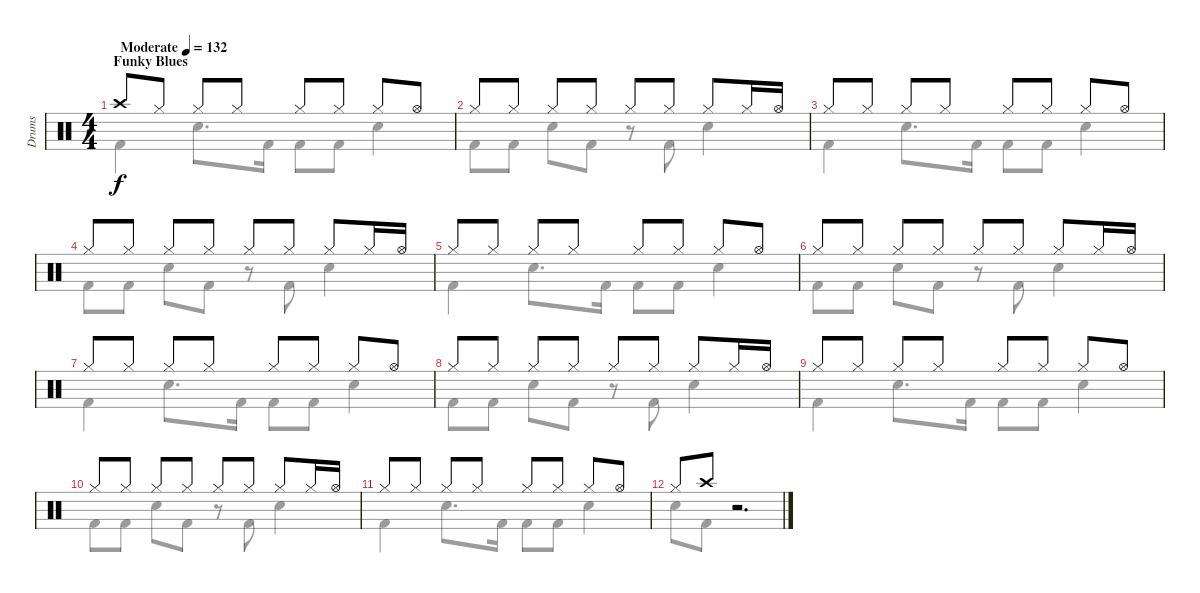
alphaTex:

\track ("Drums" "Drums") {instrument percussion}
\staff {score}
\articulation defaults
\voice
\ts (4 4)
\section ("" "Funky Blues")
\tempo (132 "Moderate")
\clef neutral
\ks c "Crash high (hit)".8{dy f volume 11 balance 8} "Hi-Hat (closed)".8 "Hi-Hat (closed)".8 "Hi-Hat (closed)".8 "Hi-Hat (closed)".8 "Hi-Hat (closed)".8 "Hi-Hat (closed)".8 "Hi-Hat (open)".8
|
"Hi-Hat (closed)".8 "Hi-Hat (closed)".8 "Hi-Hat (closed)".8 "Hi-Hat (closed)".8 "Hi-Hat (closed)".8 "Hi-Hat (closed)".8 "Hi-Hat (closed)".8 "Hi-Hat (closed)".16 "Hi-Hat (open)".16 |
"Hi-Hat (closed)".8 "Hi-Hat (closed)".8 "Hi-Hat (closed)".8 "Hi-Hat (closed)".8 "Hi-Hat (closed)".8 "Hi-Hat (closed)".8 "Hi-Hat (closed)".8 "Hi-Hat (open)".8 |
"Hi-Hat (closed)".8 "Hi-Hat (closed)".8 "Hi-Hat (closed)".8 "Hi-Hat (closed)".8 "Hi-Hat (closed)".8 "Hi-Hat (closed)".8 "Hi-Hat (closed)".8 "Hi-Hat (closed)".16 "Hi-Hat (open)".16 |
"Hi-Hat (closed)".8 "Hi-Hat (closed)".8 "Hi-Hat (closed)".8 "Hi-Hat (closed)".8 "Hi-Hat (closed)".8 "Hi-Hat (closed)".8 "Hi-Hat (closed)".8 "Hi-Hat (open)".8 |
"Hi-Hat (closed)".8 "Hi-Hat (closed)".8 "Hi-Hat (closed)".8 "Hi-Hat (closed)".8 "Hi-Hat (closed)".8 "Hi-Hat (closed)".8 "Hi-Hat (closed)".8 "Hi-Hat (closed)".16 "Hi-Hat (open)".16 |
"Hi-Hat (closed)".8 "Hi-Hat (closed)".8 "Hi-Hat (closed)".8 "Hi-Hat (closed)".8 "Hi-Hat (closed)".8 "Hi-Hat (closed)".8 "Hi-Hat (closed)".8 "Hi-Hat (open)".8 |
"Hi-Hat (closed)".8 "Hi-Hat (closed)".8 "Hi-Hat (closed)".8 "Hi-Hat (closed)".8 "Hi-Hat (closed)".8 "Hi-Hat (closed)".8 "Hi-Hat (closed)".8 "Hi-Hat (closed)".16 "Hi-Hat (open)".16 |
"Hi-Hat (closed)".8 "Hi-Hat (closed)".8 "Hi-Hat (closed)".8 "Hi-Hat (closed)".8 "Hi-Hat (closed)".8 "Hi-Hat (closed)".8 "Hi-Hat (closed)".8 "Hi-Hat (open)".8 |
"Hi-Hat (closed)".8 "Hi-Hat (closed)".8 "Hi-Hat (closed)".8 "Hi-Hat (closed)".8 "Hi-Hat (closed)".8 "Hi-Hat (closed)".8 "Hi-Hat (closed)".8 "Hi-Hat (closed)".16 "Hi-Hat (open)".16 |
"Hi-Hat (closed)".8 "Hi-Hat (closed)".8 "Hi-Hat (closed)".8 "Hi-Hat (closed)".8 "Hi-Hat (closed)".8 "Hi-Hat (closed)".8 "Hi-Hat (closed)".8 "Hi-Hat (open)".8 |
"Hi-Hat (closed)".8 "Crash high (hit)".8 r.2{d}
\voice
\clef neutral
\ottava regular
\simile none
\ks c "Kick (hit) 2".4{dy f} "Electric Snare (hit)".8{d} "Kick (hit) 2".16 "Kick (hit) 2".8 "Kick (hit) 2".8 "Electric Snare (hit)".4
|
"Kick (hit) 2".8 "Kick (hit) 2".8 "Electric Snare (hit)".8 "Kick (hit) 2".8 r.8 "Kick (hit) 2".8 "Electric Snare (hit)".4 |
"Kick (hit) 2".4 "Electric Snare (hit)".8{d} "Kick (hit) 2".16 "Kick (hit) 2".8 "Kick (hit) 2".8 "Electric Snare (hit)".4 |
"Kick (hit) 2".8 "Kick (hit) 2".8 "Electric Snare (hit)".8 "Kick (hit) 2".8 r.8 "Kick (hit) 2".8 "Electric Snare (hit)".4 |
"Kick (hit) 2".4 "Electric Snare (hit)".8{d} "Kick (hit) 2".16 "Kick (hit) 2".8 "Kick (hit) 2".8 "Electric Snare (hit)".4 |
"Kick (hit) 2".8 "Kick (hit) 2".8 "Electric Snare (hit)".8 "Kick (hit) 2".8 r.8 "Kick (hit) 2".8 "Electric Snare (hit)".4 |
"Kick (hit) 2".4 "Electric Snare (hit)".8{d} "Kick (hit) 2".16 "Kick (hit) 2".8 "Kick (hit) 2".8 "Electric Snare (hit)".4 |
"Kick (hit) 2".8 "Kick (hit) 2".8 "Electric Snare (hit)".8 "Kick (hit) 2".8 r.8 "Kick (hit) 2".8 "Electric Snare (hit)".4 |
"Kick (hit) 2".4 "Electric Snare (hit)".8{d} "Kick (hit) 2".16 "Kick (hit) 2".8 "Kick (hit) 2".8 "Electric Snare (hit)".4 |
"Kick (hit) 2".8 "Kick (hit) 2".8 "Electric Snare (hit)".8 "Kick (hit) 2".8 r.8 "Kick (hit) 2".8 "Electric Snare (hit)".4 |
"Kick (hit) 2".4 "Electric Snare (hit)".8{d} "Kick (hit) 2".16 "Kick (hit) 2".8 "Kick (hit) 2".8 "Electric Snare (hit)".4 |
"Electric Snare (hit)".8 "Kick (hit) 2".8 r.2{d}
